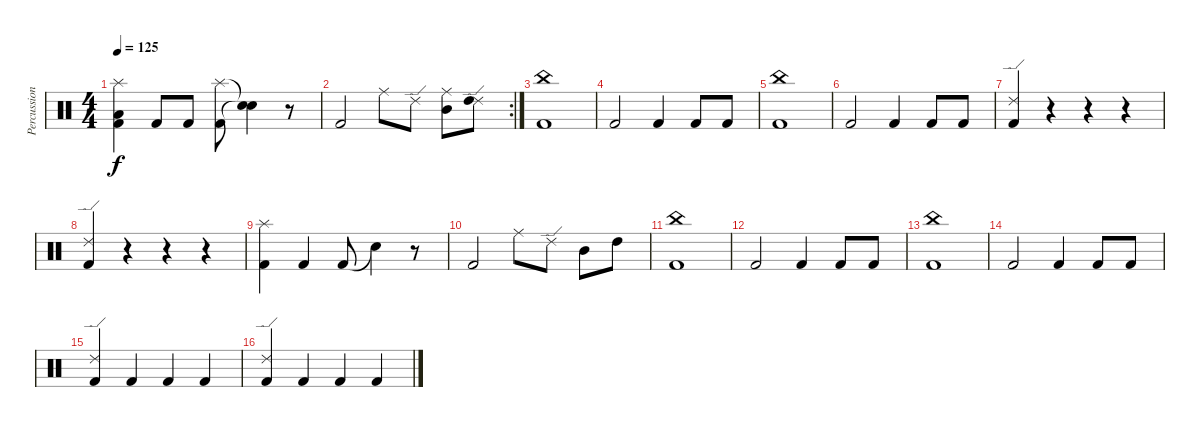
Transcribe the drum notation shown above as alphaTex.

\track ("Percussion" "Percussion") {instrument percussion}
\staff {score}
\articulation defaults
\ts (4 4)
\tempo 125
\clef neutral
\ks c
("Kick (hit) 2" "Low Floor Tom (hit)" "Splash (hit)").4{dy f} "Kick (hit) 2".8 "Kick (hit) 2".8 ("Kick (hit) 2" "Splash (hit)").8 ("Snare (hit)"{t} "Snare (hit)"{t}).4 r.8 |
\rc 2 "Kick (hit) 2".2 "Ride (middle)".8 "Ride (edge) 2".8
("Ride (middle)" "Mid Tom (hit)").8 ("Ride (edge) 2" "High Tom (hit)").8 |
("Kick (hit) 2" "China (hit)").1 |
"Kick (hit) 2".2 "Kick (hit) 2".4 "Kick (hit) 2".8 "Kick (hit) 2".8 |
("Kick (hit) 2" "China (hit)").1 |
"Kick (hit) 2".2 "Kick (hit) 2".4 "Kick (hit) 2".8 "Kick (hit) 2".8 |
("Kick (hit) 2" "Ride (edge) 2").4 r.4 r.4 r.4 |
("Kick (hit) 2" "Ride (edge) 2").4 r.4 r.4 r.4 |
("Kick (hit) 2" "Splash (hit)").4 "Kick (hit) 2".4 "Kick (hit) 2".8 "Snare (hit)"{t}.4 r.8 |
"Kick (hit) 2".2 "Ride (middle)".8 "Ride (edge) 2".8 "Mid Tom (hit)".8 "High Tom (hit)".8 |
("Kick (hit) 2" "China (hit)").1 |
"Kick (hit) 2".2 "Kick (hit) 2".4 "Kick (hit) 2".8 "Kick (hit) 2".8 |
("Kick (hit) 2" "China (hit)").1 |
"Kick (hit) 2".2 "Kick (hit) 2".4 "Kick (hit) 2".8 "Kick (hit) 2".8 |
("Kick (hit) 2" "Ride (edge) 2").4 "Kick (hit) 2".4 "Kick (hit) 2".4 "Kick (hit) 2".4 |
("Kick (hit) 2" "Ride (edge) 2").4 "Kick (hit) 2".4 "Kick (hit) 2".4 "Kick (hit) 2".4
